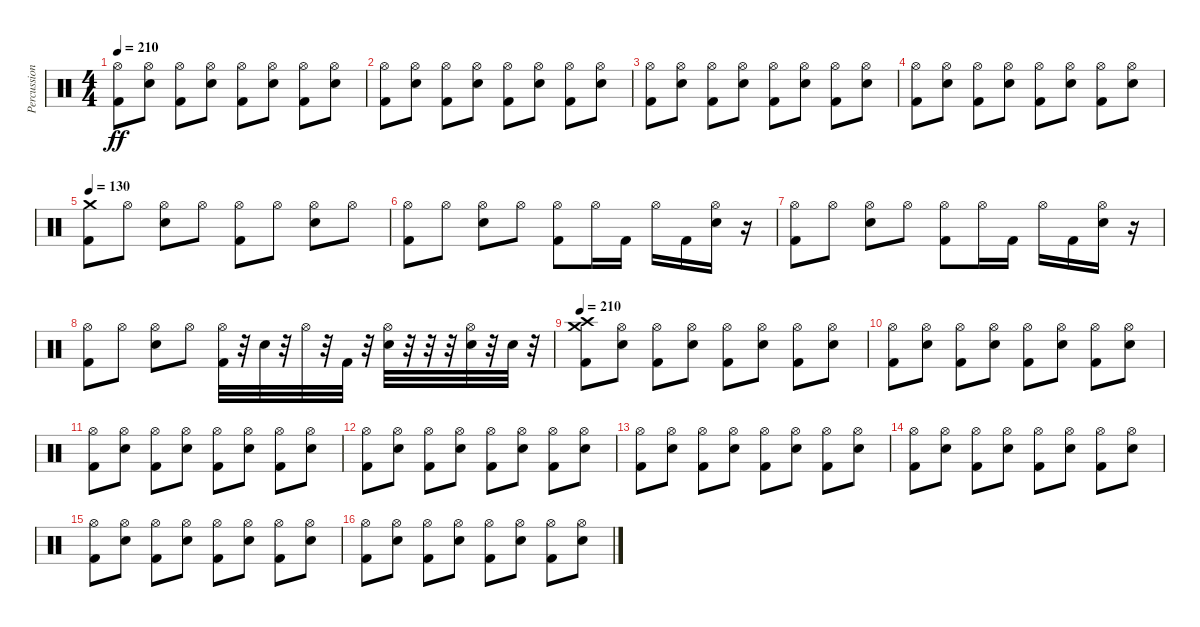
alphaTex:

\track ("Percussion" "Percussion") {instrument percussion}
\staff {score}
\articulation defaults
\ts (4 4)
\tempo 210
\clef neutral
\ks c
("Kick (hit) 2" "Hi-Hat (open)").8{dy ff} ("Electric Snare (hit)" "Hi-Hat (open)").8 ("Kick (hit) 2" "Hi-Hat (open)").8 ("Electric Snare (hit)" "Hi-Hat (open)").8 ("Kick (hit) 2" "Hi-Hat (open)").8 ("Electric Snare (hit)" "Hi-Hat (open)").8 ("Kick (hit) 2" "Hi-Hat (open)").8 ("Electric Snare (hit)" "Hi-Hat (open)").8 |
("Kick (hit) 2" "Hi-Hat (open)").8 ("Electric Snare (hit)" "Hi-Hat (open)").8 ("Kick (hit) 2" "Hi-Hat (open)").8 ("Electric Snare (hit)" "Hi-Hat (open)").8 ("Kick (hit) 2" "Hi-Hat (open)").8 ("Electric Snare (hit)" "Hi-Hat (open)").8 ("Kick (hit) 2" "Hi-Hat (open)").8 ("Electric Snare (hit)" "Hi-Hat (open)").8 |
("Kick (hit) 2" "Hi-Hat (open)").8 ("Electric Snare (hit)" "Hi-Hat (open)").8 ("Kick (hit) 2" "Hi-Hat (open)").8 ("Electric Snare (hit)" "Hi-Hat (open)").8 ("Kick (hit) 2" "Hi-Hat (open)").8 ("Electric Snare (hit)" "Hi-Hat (open)").8 ("Kick (hit) 2" "Hi-Hat (open)").8 ("Electric Snare (hit)" "Hi-Hat (open)").8 |
("Kick (hit) 2" "Hi-Hat (open)").8 ("Electric Snare (hit)" "Hi-Hat (open)").8 ("Kick (hit) 2" "Hi-Hat (open)").8 ("Electric Snare (hit)" "Hi-Hat (open)").8 ("Kick (hit) 2" "Hi-Hat (open)").8 ("Electric Snare (hit)" "Hi-Hat (open)").8 ("Kick (hit) 2" "Hi-Hat (open)").8 ("Electric Snare (hit)" "Hi-Hat (open)").8 |
\tempo 130
("Kick (hit) 2" "Crash medium (hit)").8 "Hi-Hat (open)".8 ("Electric Snare (hit)" "Hi-Hat (open)").8 "Hi-Hat (open)".8 ("Kick (hit) 2" "Hi-Hat (open)").8 "Hi-Hat (open)".8 ("Electric Snare (hit)" "Hi-Hat (open)").8 "Hi-Hat (open)".8 |
("Kick (hit) 2" "Hi-Hat (open)").8 "Hi-Hat (open)".8 ("Electric Snare (hit)" "Hi-Hat (open)").8 "Hi-Hat (open)".8 ("Kick (hit) 2" "Hi-Hat (open)").8 "Hi-Hat (open)".16 "Kick (hit) 2".16 "Hi-Hat (open)".16 "Kick (hit) 2".16 ("Electric Snare (hit)" "Hi-Hat (open)").16 r.16 |
("Kick (hit) 2" "Hi-Hat (open)").8 "Hi-Hat (open)".8 ("Electric Snare (hit)" "Hi-Hat (open)").8 "Hi-Hat (open)".8 ("Kick (hit) 2" "Hi-Hat (open)").8 "Hi-Hat (open)".16 "Kick (hit) 2".16 "Hi-Hat (open)".16 "Kick (hit) 2".16 ("Electric Snare (hit)" "Hi-Hat (open)").16 r.16 |
("Kick (hit) 2" "Hi-Hat (open)").8 "Hi-Hat (open)".8 ("Electric Snare (hit)" "Hi-Hat (open)").8 "Hi-Hat (open)".8 ("Kick (hit) 2" "Hi-Hat (open)").32 r.32 "Electric Snare (hit)".32 r.32 "Hi-Hat (open)".32 r.32 "Kick (hit) 2".32 r.32 ("Electric Snare (hit)" "Hi-Hat (open)").32 r.32 r.32 r.32 ("Electric Snare (hit)" "Hi-Hat (open)").32 r.32 "Electric Snare (hit)".32 r.32 |
\tempo 210
("Kick (hit) 2" "Crash medium (hit)" "Crash high (hit)").8 ("Electric Snare (hit)" "Hi-Hat (open)").8 ("Kick (hit) 2" "Hi-Hat (open)").8 ("Electric Snare (hit)" "Hi-Hat (open)").8 ("Kick (hit) 2" "Hi-Hat (open)").8 ("Electric Snare (hit)" "Hi-Hat (open)").8 ("Kick (hit) 2" "Hi-Hat (open)").8 ("Electric Snare (hit)" "Hi-Hat (open)").8 |
("Kick (hit) 2" "Hi-Hat (open)").8 ("Electric Snare (hit)" "Hi-Hat (open)").8 ("Kick (hit) 2" "Hi-Hat (open)").8 ("Electric Snare (hit)" "Hi-Hat (open)").8 ("Kick (hit) 2" "Hi-Hat (open)").8 ("Electric Snare (hit)" "Hi-Hat (open)").8 ("Kick (hit) 2" "Hi-Hat (open)").8 ("Electric Snare (hit)" "Hi-Hat (open)").8 |
("Kick (hit) 2" "Hi-Hat (open)").8 ("Electric Snare (hit)" "Hi-Hat (open)").8 ("Kick (hit) 2" "Hi-Hat (open)").8 ("Electric Snare (hit)" "Hi-Hat (open)").8 ("Kick (hit) 2" "Hi-Hat (open)").8 ("Electric Snare (hit)" "Hi-Hat (open)").8 ("Kick (hit) 2" "Hi-Hat (open)").8 ("Electric Snare (hit)" "Hi-Hat (open)").8 |
("Kick (hit) 2" "Hi-Hat (open)").8 ("Electric Snare (hit)" "Hi-Hat (open)").8 ("Kick (hit) 2" "Hi-Hat (open)").8 ("Electric Snare (hit)" "Hi-Hat (open)").8 ("Kick (hit) 2" "Hi-Hat (open)").8 ("Electric Snare (hit)" "Hi-Hat (open)").8 ("Kick (hit) 2" "Hi-Hat (open)").8 ("Electric Snare (hit)" "Hi-Hat (open)").8 |
("Kick (hit) 2" "Hi-Hat (open)").8 ("Electric Snare (hit)" "Hi-Hat (open)").8 ("Kick (hit) 2" "Hi-Hat (open)").8 ("Electric Snare (hit)" "Hi-Hat (open)").8 ("Kick (hit) 2" "Hi-Hat (open)").8 ("Electric Snare (hit)" "Hi-Hat (open)").8 ("Kick (hit) 2" "Hi-Hat (open)").8 ("Electric Snare (hit)" "Hi-Hat (open)").8 |
("Kick (hit) 2" "Hi-Hat (open)").8 ("Electric Snare (hit)" "Hi-Hat (open)").8 ("Kick (hit) 2" "Hi-Hat (open)").8 ("Electric Snare (hit)" "Hi-Hat (open)").8 ("Kick (hit) 2" "Hi-Hat (open)").8 ("Electric Snare (hit)" "Hi-Hat (open)").8 ("Kick (hit) 2" "Hi-Hat (open)").8 ("Electric Snare (hit)" "Hi-Hat (open)").8 |
("Kick (hit) 2" "Hi-Hat (open)").8 ("Electric Snare (hit)" "Hi-Hat (open)").8 ("Kick (hit) 2" "Hi-Hat (open)").8 ("Electric Snare (hit)" "Hi-Hat (open)").8 ("Kick (hit) 2" "Hi-Hat (open)").8 ("Electric Snare (hit)" "Hi-Hat (open)").8 ("Kick (hit) 2" "Hi-Hat (open)").8 ("Electric Snare (hit)" "Hi-Hat (open)").8 |
("Kick (hit) 2" "Hi-Hat (open)").8 ("Electric Snare (hit)" "Hi-Hat (open)").8 ("Kick (hit) 2" "Hi-Hat (open)").8 ("Electric Snare (hit)" "Hi-Hat (open)").8 ("Kick (hit) 2" "Hi-Hat (open)").8 ("Electric Snare (hit)" "Hi-Hat (open)").8 ("Kick (hit) 2" "Hi-Hat (open)").8 ("Electric Snare (hit)" "Hi-Hat (open)").8
